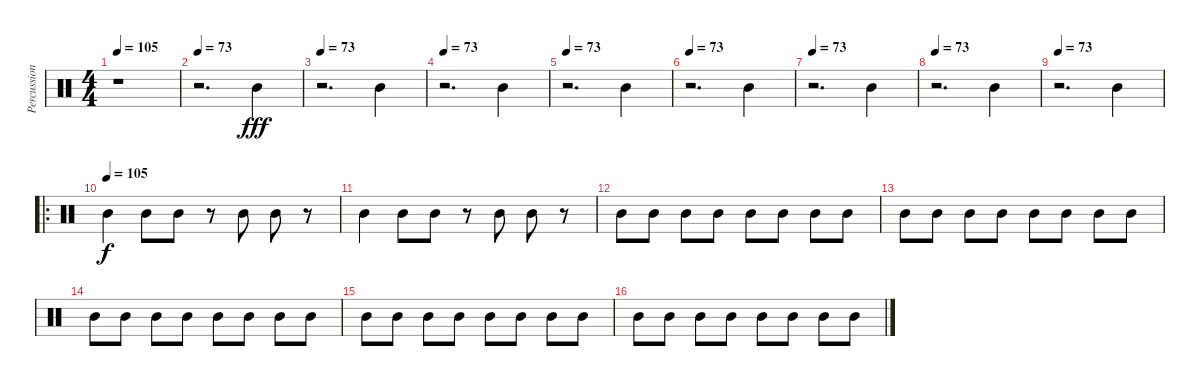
\track ("Percussions" "Percussion") {instrument percussion}
\staff {score}
\articulation defaults
\ts (4 4)
\tempo 105
\tempo 73
\tempo 105
\clef neutral
\ks c
r.1{dy fff} |
\tempo 73
r.2{d} "Mid Tom (hit)".4 |
\tempo 73
r.2{d} "Mid Tom (hit)".4 |
\tempo 73
r.2{d} "Mid Tom (hit)".4 |
\tempo 73
r.2{d} "Mid Tom (hit)".4 |
\tempo 73
r.2{d} "Mid Tom (hit)".4 |
\tempo 73
r.2{d} "Mid Tom (hit)".4 |
\tempo 73
r.2{d} "Mid Tom (hit)".4 |
\tempo 73
r.2{d} "Mid Tom (hit)".4 |
\ro
\tempo (105)
"Mid Tom (hit)".4{dy f} "Mid Tom (hit)".8 "Mid Tom (hit)".8 r.8 "Mid Tom (hit)".8 "Mid Tom (hit)".8 r.8 |
"Mid Tom (hit)".4 "Mid Tom (hit)".8 "Mid Tom (hit)".8 r.8 "Mid Tom (hit)".8 "Mid Tom (hit)".8 r.8 |
"Mid Tom (hit)".8 "Mid Tom (hit)".8 "Mid Tom (hit)".8 "Mid Tom (hit)".8 "Mid Tom (hit)".8 "Mid Tom (hit)".8 "Mid Tom (hit)".8 "Mid Tom (hit)".8 |
"Mid Tom (hit)".8 "Mid Tom (hit)".8 "Mid Tom (hit)".8 "Mid Tom (hit)".8 "Mid Tom (hit)".8 "Mid Tom (hit)".8 "Mid Tom (hit)".8 "Mid Tom (hit)".8 |
"Mid Tom (hit)".8 "Mid Tom (hit)".8 "Mid Tom (hit)".8 "Mid Tom (hit)".8 "Mid Tom (hit)".8 "Mid Tom (hit)".8 "Mid Tom (hit)".8 "Mid Tom (hit)".8 |
"Mid Tom (hit)".8 "Mid Tom (hit)".8 "Mid Tom (hit)".8 "Mid Tom (hit)".8 "Mid Tom (hit)".8 "Mid Tom (hit)".8 "Mid Tom (hit)".8 "Mid Tom (hit)".8 |
"Mid Tom (hit)".8 "Mid Tom (hit)".8 "Mid Tom (hit)".8 "Mid Tom (hit)".8 "Mid Tom (hit)".8 "Mid Tom (hit)".8 "Mid Tom (hit)".8 "Mid Tom (hit)".8
